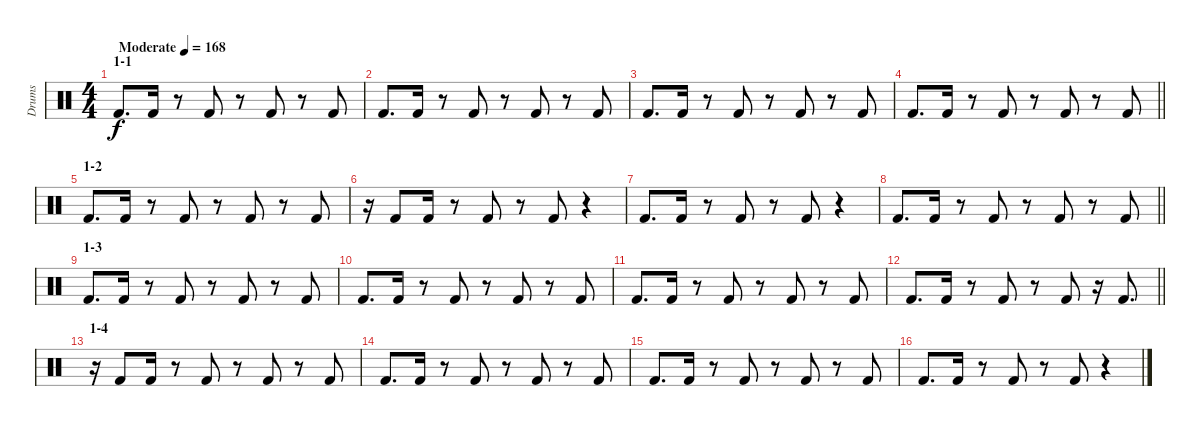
\track ("Drums" "Drums") {instrument percussion}
\staff {score}
\articulation defaults
\ts (4 4)
\section ("" "1-1")
\tempo (168 "Moderate")
\clef neutral
\ks c "Kick (hit) 2".8{d dy f} "Kick (hit) 2".16
r.8 "Kick (hit) 2".8 r.8 "Kick (hit) 2".8 r.8 "Kick (hit) 2".8 |
"Kick (hit) 2".8{d} "Kick (hit) 2".16 r.8 "Kick (hit) 2".8 r.8 "Kick (hit) 2".8 r.8 "Kick (hit) 2".8 |
"Kick (hit) 2".8{d} "Kick (hit) 2".16 r.8 "Kick (hit) 2".8 r.8 "Kick (hit) 2".8 r.8 "Kick (hit) 2".8 |
\barLineRight lightlight "Kick (hit) 2".8{d} "Kick (hit) 2".16
r.8 "Kick (hit) 2".8 r.8 "Kick (hit) 2".8 r.8 "Kick (hit) 2".8 |
\section ("" "1-2")
"Kick (hit) 2".8{d} "Kick (hit) 2".16 r.8 "Kick (hit) 2".8 r.8 "Kick (hit) 2".8 r.8 "Kick (hit) 2".8 |
r.16 "Kick (hit) 2".8 "Kick (hit) 2".16 r.8 "Kick (hit) 2".8 r.8 "Kick (hit) 2".8 r.4 |
"Kick (hit) 2".8{d} "Kick (hit) 2".16 r.8 "Kick (hit) 2".8 r.8 "Kick (hit) 2".8 r.4 |
\barLineRight lightlight "Kick (hit) 2".8{d} "Kick (hit) 2".16
r.8 "Kick (hit) 2".8 r.8 "Kick (hit) 2".8 r.8 "Kick (hit) 2".8 |
\section ("" "1-3")
"Kick (hit) 2".8{d} "Kick (hit) 2".16 r.8 "Kick (hit) 2".8 r.8 "Kick (hit) 2".8 r.8 "Kick (hit) 2".8 |
"Kick (hit) 2".8{d} "Kick (hit) 2".16 r.8 "Kick (hit) 2".8 r.8 "Kick (hit) 2".8 r.8 "Kick (hit) 2".8 |
"Kick (hit) 2".8{d} "Kick (hit) 2".16 r.8 "Kick (hit) 2".8 r.8 "Kick (hit) 2".8 r.8 "Kick (hit) 2".8 |
\barLineRight lightlight "Kick (hit) 2".8{d} "Kick (hit) 2".16
r.8 "Kick (hit) 2".8 r.8 "Kick (hit) 2".8 r.16 "Kick (hit) 2".8{d} |
\section ("" "1-4")
r.16 "Kick (hit) 2".8 "Kick (hit) 2".16 r.8 "Kick (hit) 2".8 r.8 "Kick (hit) 2".8 r.8 "Kick (hit) 2".8 |
"Kick (hit) 2".8{d} "Kick (hit) 2".16 r.8 "Kick (hit) 2".8 r.8 "Kick (hit) 2".8 r.8 "Kick (hit) 2".8 |
"Kick (hit) 2".8{d} "Kick (hit) 2".16 r.8 "Kick (hit) 2".8 r.8 "Kick (hit) 2".8 r.8 "Kick (hit) 2".8 |
"Kick (hit) 2".8{d} "Kick (hit) 2".16 r.8 "Kick (hit) 2".8 r.8 "Kick (hit) 2".8 r.4
